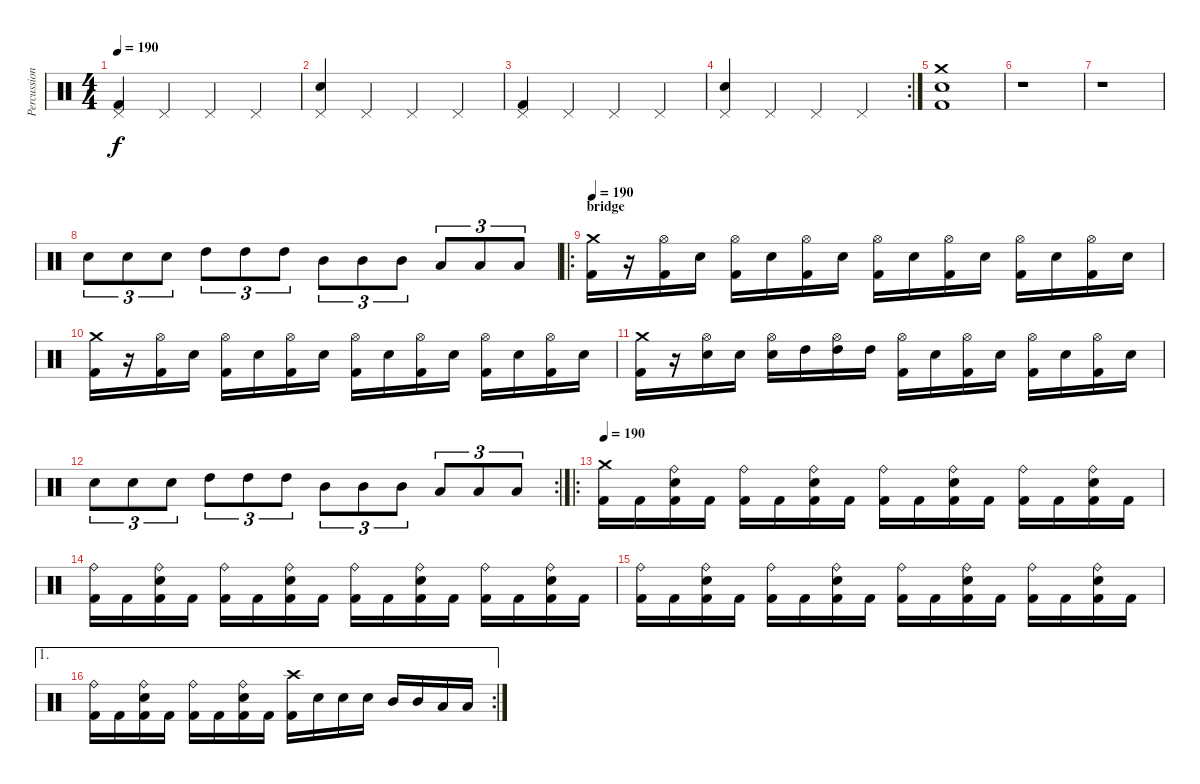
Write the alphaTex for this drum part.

\track ("Percussions" "Percussion") {instrument percussion}
\staff {score}
\articulation defaults
\ts (4 4)
\tempo 190
\clef neutral
\ks c
("Pedal Hi-Hat (hit)" "Kick (hit) 2").4{dy f} "Pedal Hi-Hat (hit)".4 "Pedal Hi-Hat (hit)".4 "Pedal Hi-Hat (hit)".4 |
("Pedal Hi-Hat (hit)" "Electric Snare (hit)").4 "Pedal Hi-Hat (hit)".4 "Pedal Hi-Hat (hit)".4 "Pedal Hi-Hat (hit)".4 |
("Pedal Hi-Hat (hit)" "Kick (hit) 2").4 "Pedal Hi-Hat (hit)".4 "Pedal Hi-Hat (hit)".4 "Pedal Hi-Hat (hit)".4 |
\rc 2
("Pedal Hi-Hat (hit)" "Electric Snare (hit)").4 "Pedal Hi-Hat (hit)".4 "Pedal Hi-Hat (hit)".4 "Pedal Hi-Hat (hit)".4 |
("Crash medium (hit)" "Electric Snare (hit)" "Kick (hit) 2").1 |
r.1 |
r.1 |
"Electric Snare (hit)".8{tu (3 2)} "Electric Snare (hit)".8{tu (3 2)} "Electric Snare (hit)".8{tu (3 2)} "High Tom (hit)".8{tu (3 2)} "High Tom (hit)".8{tu (3 2)} "High Tom (hit)".8{tu (3 2)} "Mid Tom (hit)".8{tu (3 2)} "Mid Tom (hit)".8{tu (3 2)} "Mid Tom (hit)".8{tu (3 2)} "Low Tom (hit)".8{tu (3 2)} "Low Tom (hit)".8{tu (3 2)} "Low Tom (hit)".8{tu (3 2)} |
\ro
\section ("" "bridge")
\tempo 190
("Crash medium (hit)" "Kick (hit) 2").16 r.16 ("Hi-Hat (open)" "Kick (hit) 2").16 "Electric Snare (hit)".16 ("Hi-Hat (open)" "Kick (hit) 2").16 "Electric Snare (hit)".16 ("Hi-Hat (open)" "Kick (hit) 2").16 "Electric Snare (hit)".16 ("Hi-Hat (open)" "Kick (hit) 2").16 "Electric Snare (hit)".16 ("Hi-Hat (open)" "Kick (hit) 2").16 "Electric Snare (hit)".16 ("Hi-Hat (open)" "Kick (hit) 2").16 "Electric Snare (hit)".16 ("Hi-Hat (open)" "Kick (hit) 2").16 "Electric Snare (hit)".16 |
("Crash medium (hit)" "Kick (hit) 2").16 r.16 ("Hi-Hat (open)" "Kick (hit) 2").16 "Electric Snare (hit)".16 ("Hi-Hat (open)" "Kick (hit) 2").16 "Electric Snare (hit)".16 ("Hi-Hat (open)" "Kick (hit) 2").16 "Electric Snare (hit)".16 ("Hi-Hat (open)" "Kick (hit) 2").16 "Electric Snare (hit)".16 ("Hi-Hat (open)" "Kick (hit) 2").16 "Electric Snare (hit)".16 ("Hi-Hat (open)" "Kick (hit) 2").16 "Electric Snare (hit)".16 ("Hi-Hat (open)" "Kick (hit) 2").16 "Electric Snare (hit)".16 |
("Crash medium (hit)" "Kick (hit) 2").16 r.16 ("Hi-Hat (open)" "Electric Snare (hit)").16 "Electric Snare (hit)".16 ("Hi-Hat (open)" "Electric Snare (hit)").16 "High Tom (hit)".16 ("Hi-Hat (open)" "High Tom (hit)").16 "High Tom (hit)".16 ("Hi-Hat (open)" "Kick (hit) 2").16 "Electric Snare (hit)".16 ("Hi-Hat (open)" "Kick (hit) 2").16 "Electric Snare (hit)".16 ("Hi-Hat (open)" "Kick (hit) 2").16 "Electric Snare (hit)".16 ("Hi-Hat (open)" "Kick (hit) 2").16 "Electric Snare (hit)".16 |
\rc 2 "Electric Snare (hit)".8{tu (3 2)} "Electric Snare (hit)".8{tu (3 2)} "Electric Snare (hit)".8{tu (3 2)} "High Tom (hit)".8{tu (3 2)} "High Tom (hit)".8{tu (3 2)} "High Tom (hit)".8{tu (3 2)} "Mid Tom (hit)".8{tu (3 2)} "Mid Tom (hit)".8{tu (3 2)} "Mid Tom (hit)".8{tu (3 2)} "Low Tom (hit)".8{tu (3 2)} "Low Tom (hit)".8{tu (3 2)} "Low Tom (hit)".8{tu (3 2)}
|
\ro
\tempo 190
("Crash medium (hit)" "Kick (hit) 2").16 "Kick (hit) 2".16 ("Ride (bell)" "Electric Snare (hit)" "Kick (hit) 2").16 "Kick (hit) 2".16 ("Ride (bell)" "Kick (hit) 2").16 "Kick (hit) 2".16 ("Ride (bell)" "Electric Snare (hit)" "Kick (hit) 2").16 "Kick (hit) 2".16 ("Ride (bell)" "Kick (hit) 2").16 "Kick (hit) 2".16 ("Ride (bell)" "Electric Snare (hit)" "Kick (hit) 2").16 "Kick (hit) 2".16 ("Ride (bell)" "Kick (hit) 2").16 "Kick (hit) 2".16 ("Ride (bell)" "Electric Snare (hit)" "Kick (hit) 2").16 "Kick (hit) 2".16 |
("Ride (bell)" "Kick (hit) 2").16 "Kick (hit) 2".16 ("Ride (bell)" "Electric Snare (hit)" "Kick (hit) 2").16 "Kick (hit) 2".16 ("Ride (bell)" "Kick (hit) 2").16 "Kick (hit) 2".16 ("Ride (bell)" "Electric Snare (hit)" "Kick (hit) 2").16 "Kick (hit) 2".16 ("Ride (bell)" "Kick (hit) 2").16 "Kick (hit) 2".16 ("Ride (bell)" "Electric Snare (hit)" "Kick (hit) 2").16 "Kick (hit) 2".16 ("Ride (bell)" "Kick (hit) 2").16 "Kick (hit) 2".16 ("Ride (bell)" "Electric Snare (hit)" "Kick (hit) 2").16 "Kick (hit) 2".16 |
("Ride (bell)" "Kick (hit) 2").16 "Kick (hit) 2".16 ("Ride (bell)" "Electric Snare (hit)" "Kick (hit) 2").16 "Kick (hit) 2".16 ("Ride (bell)" "Kick (hit) 2").16 "Kick (hit) 2".16 ("Ride (bell)" "Electric Snare (hit)" "Kick (hit) 2").16 "Kick (hit) 2".16 ("Ride (bell)" "Kick (hit) 2").16 "Kick (hit) 2".16 ("Ride (bell)" "Electric Snare (hit)" "Kick (hit) 2").16 "Kick (hit) 2".16 ("Ride (bell)" "Kick (hit) 2").16 "Kick (hit) 2".16 ("Ride (bell)" "Electric Snare (hit)" "Kick (hit) 2").16 "Kick (hit) 2".16 |
\ae 1
\rc 2
("Ride (bell)" "Kick (hit) 2").16 "Kick (hit) 2".16 ("Ride (bell)" "Electric Snare (hit)" "Kick (hit) 2").16 "Kick (hit) 2".16 ("Ride (bell)" "Kick (hit) 2").16 "Kick (hit) 2".16 ("Ride (bell)" "Electric Snare (hit)" "Kick (hit) 2").16 "Kick (hit) 2".16 ("Crash high (hit)" "Kick (hit) 2").16 "Electric Snare (hit)".16 "Electric Snare (hit)".16 "Electric Snare (hit)".16 "Mid Tom (hit)".16 "Mid Tom (hit)".16 "Low Tom (hit)".16 "Low Tom (hit)".16
